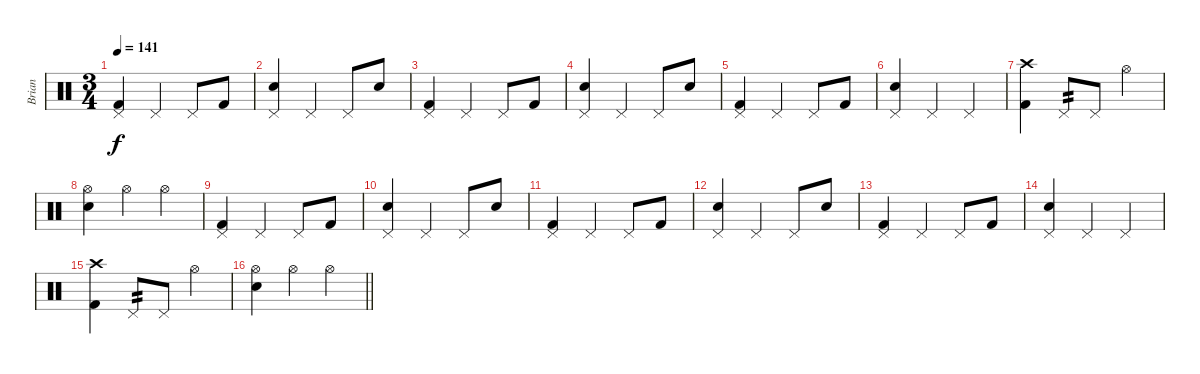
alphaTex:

\track ("Brian" "Brian") {instrument percussion}
\staff {score}
\articulation defaults
\ts (3 4)
\tempo 141
\clef neutral
\ks c
("Pedal Hi-Hat (hit)" "Kick (hit) 2").4{dy f} "Pedal Hi-Hat (hit)".4 "Pedal Hi-Hat (hit)".8 "Kick (hit) 2".8 |
("Pedal Hi-Hat (hit)" "Electric Snare (hit)").4 "Pedal Hi-Hat (hit)".4 "Pedal Hi-Hat (hit)".8 "Electric Snare (hit)".8 |
("Pedal Hi-Hat (hit)" "Kick (hit) 2").4 "Pedal Hi-Hat (hit)".4 "Pedal Hi-Hat (hit)".8 "Kick (hit) 2".8 |
("Pedal Hi-Hat (hit)" "Electric Snare (hit)").4 "Pedal Hi-Hat (hit)".4 "Pedal Hi-Hat (hit)".8 "Electric Snare (hit)".8 |
("Pedal Hi-Hat (hit)" "Kick (hit) 2").4 "Pedal Hi-Hat (hit)".4 "Pedal Hi-Hat (hit)".8 "Kick (hit) 2".8 |
("Pedal Hi-Hat (hit)" "Electric Snare (hit)").4 "Pedal Hi-Hat (hit)".4 "Pedal Hi-Hat (hit)".4 |
("Crash high (hit)" "Kick (hit) 2").4 "Pedal Hi-Hat (hit)".8{tp 2} "Pedal Hi-Hat (hit)".8 "Hi-Hat (open)".4 |
("Hi-Hat (open)" "Electric Snare (hit)").4 "Hi-Hat (open)".4 "Hi-Hat (open)".4 |
("Pedal Hi-Hat (hit)" "Kick (hit) 2").4 "Pedal Hi-Hat (hit)".4 "Pedal Hi-Hat (hit)".8 "Kick (hit) 2".8 |
("Pedal Hi-Hat (hit)" "Electric Snare (hit)").4 "Pedal Hi-Hat (hit)".4 "Pedal Hi-Hat (hit)".8 "Electric Snare (hit)".8 |
("Pedal Hi-Hat (hit)" "Kick (hit) 2").4 "Pedal Hi-Hat (hit)".4 "Pedal Hi-Hat (hit)".8 "Kick (hit) 2".8 |
("Pedal Hi-Hat (hit)" "Electric Snare (hit)").4 "Pedal Hi-Hat (hit)".4 "Pedal Hi-Hat (hit)".8 "Electric Snare (hit)".8 |
("Pedal Hi-Hat (hit)" "Kick (hit) 2").4 "Pedal Hi-Hat (hit)".4 "Pedal Hi-Hat (hit)".8 "Kick (hit) 2".8 |
("Pedal Hi-Hat (hit)" "Electric Snare (hit)").4 "Pedal Hi-Hat (hit)".4 "Pedal Hi-Hat (hit)".4 |
("Crash high (hit)" "Kick (hit) 2").4 "Pedal Hi-Hat (hit)".8{tp 2} "Pedal Hi-Hat (hit)".8 "Hi-Hat (open)".4 |
\barLineRight lightlight
("Hi-Hat (open)" "Electric Snare (hit)").4 "Hi-Hat (open)".4 "Hi-Hat (open)".4
